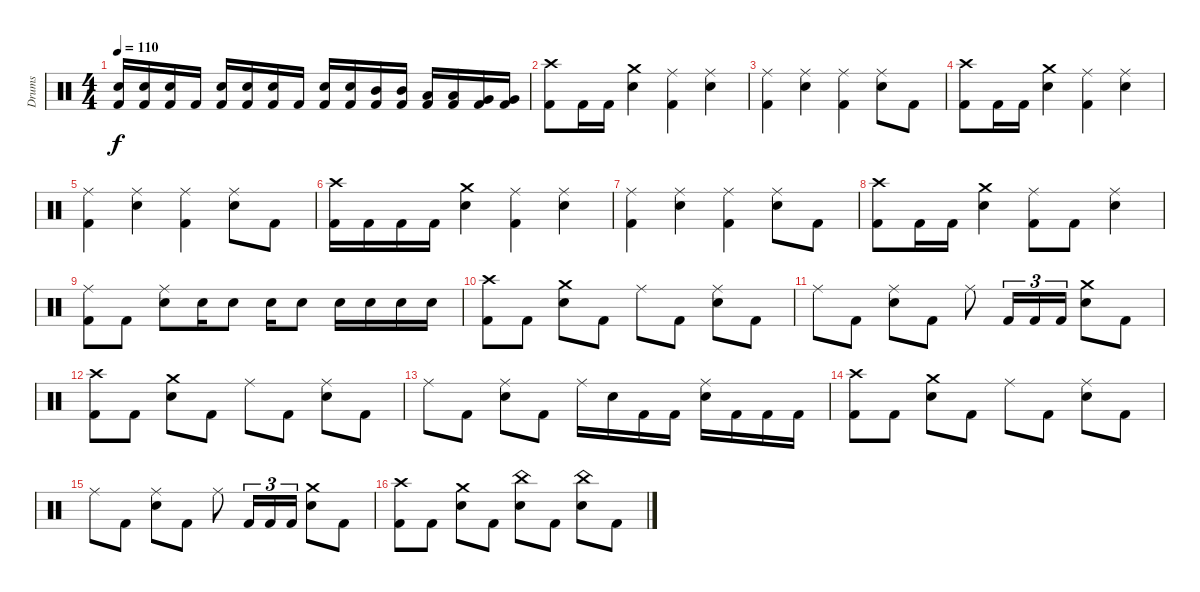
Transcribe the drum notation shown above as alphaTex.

\track ("Drums" "Drums") {instrument percussion}
\staff {score}
\articulation defaults
\ts (4 4)
\tempo 110
\clef neutral
\ks c
("Electric Snare (hit)" "Kick (hit) 2").16{dy f} ("Electric Snare (hit)" "Kick (hit) 2").16 ("Electric Snare (hit)" "Kick (hit) 2").16 "Kick (hit) 2".16 ("Electric Snare (hit)" "Kick (hit) 2").16 ("Electric Snare (hit)" "Kick (hit) 2").16 ("Electric Snare (hit)" "Kick (hit) 2").16 "Kick (hit) 2".16 ("Electric Snare (hit)" "Kick (hit) 2").16 ("Electric Snare (hit)" "Kick (hit) 2").16 ("Mid Tom (hit)" "Kick (hit) 2").16 ("Mid Tom (hit)" "Kick (hit) 2").16 ("Low Tom (hit)" "Kick (hit) 2").16 ("Low Tom (hit)" "Kick (hit) 2").16 ("Very Low Tom (hit)" "Kick (hit) 2").16 ("Very Low Tom (hit)" "Kick (hit) 2").16 |
("Crash high (hit)" "Kick (hit) 2").8 "Kick (hit) 2".16 "Kick (hit) 2".16 ("Crash medium (hit)" "Electric Snare (hit)").4 ("Ride (middle)" "Kick (hit) 2").4 ("Ride (middle)" "Electric Snare (hit)").4 |
("Ride (middle)" "Kick (hit) 2").4 ("Ride (middle)" "Electric Snare (hit)").4 ("Ride (middle)" "Kick (hit) 2").4 ("Ride (middle)" "Electric Snare (hit)").8 "Kick (hit) 2".8 |
("Crash high (hit)" "Kick (hit) 2").8 "Kick (hit) 2".16 "Kick (hit) 2".16 ("Crash medium (hit)" "Electric Snare (hit)").4 ("Ride (middle)" "Kick (hit) 2").4 ("Ride (middle)" "Electric Snare (hit)").4 |
("Ride (middle)" "Kick (hit) 2").4 ("Ride (middle)" "Electric Snare (hit)").4 ("Ride (middle)" "Kick (hit) 2").4 ("Ride (middle)" "Electric Snare (hit)").8 "Kick (hit) 2".8 |
("Crash high (hit)" "Kick (hit) 2").16 "Kick (hit) 2".16 "Kick (hit) 2".16 "Kick (hit) 2".16 ("Crash medium (hit)" "Electric Snare (hit)").4 ("Ride (middle)" "Kick (hit) 2").4 ("Ride (middle)" "Electric Snare (hit)").4 |
("Ride (middle)" "Kick (hit) 2").4 ("Ride (middle)" "Electric Snare (hit)").4 ("Ride (middle)" "Kick (hit) 2").4 ("Ride (middle)" "Electric Snare (hit)").8 "Kick (hit) 2".8 |
("Crash high (hit)" "Kick (hit) 2").8 "Kick (hit) 2".16 "Kick (hit) 2".16 ("Crash medium (hit)" "Electric Snare (hit)").4 ("Ride (middle)" "Kick (hit) 2").8 "Kick (hit) 2".8 ("Ride (middle)" "Electric Snare (hit)").4 |
("Ride (middle)" "Kick (hit) 2").8 "Kick (hit) 2".8 ("Ride (middle)" "Electric Snare (hit)").8 "Electric Snare (hit)".16 "Electric Snare (hit)".8 "Electric Snare (hit)".16 "Electric Snare (hit)".8 "Electric Snare (hit)".16 "Electric Snare (hit)".16 "Electric Snare (hit)".16 "Electric Snare (hit)".16 |
("Crash high (hit)" "Kick (hit) 2").8 "Kick (hit) 2".8 ("Crash medium (hit)" "Electric Snare (hit)").8 "Kick (hit) 2".8 "Ride (middle)".8 "Kick (hit) 2".8 ("Ride (middle)" "Electric Snare (hit)").8 "Kick (hit) 2".8 |
"Ride (middle)".8 "Kick (hit) 2".8 ("Ride (middle)" "Electric Snare (hit)").8 "Kick (hit) 2".8 "Ride (middle)".8 "Kick (hit) 2".16{tu (3 2)} "Kick (hit) 2".16{tu (3 2)} "Kick (hit) 2".16{tu (3 2)} ("Crash medium (hit)" "Electric Snare (hit)").8 "Kick (hit) 2".8 |
("Crash high (hit)" "Kick (hit) 2").8 "Kick (hit) 2".8 ("Crash medium (hit)" "Electric Snare (hit)").8 "Kick (hit) 2".8 "Ride (middle)".8 "Kick (hit) 2".8 ("Ride (middle)" "Electric Snare (hit)").8 "Kick (hit) 2".8 |
"Ride (middle)".8 "Kick (hit) 2".8 ("Ride (middle)" "Electric Snare (hit)").8 "Kick (hit) 2".8 "Ride (middle)".16 "Electric Snare (hit)".16 "Kick (hit) 2".16 "Kick (hit) 2".16 ("Ride (middle)" "Electric Snare (hit)").16 "Kick (hit) 2".16 "Kick (hit) 2".16 "Kick (hit) 2".16 |
("Crash high (hit)" "Kick (hit) 2").8 "Kick (hit) 2".8 ("Crash medium (hit)" "Electric Snare (hit)").8 "Kick (hit) 2".8 "Ride (middle)".8 "Kick (hit) 2".8 ("Ride (middle)" "Electric Snare (hit)").8 "Kick (hit) 2".8 |
"Ride (middle)".8 "Kick (hit) 2".8 ("Ride (middle)" "Electric Snare (hit)").8 "Kick (hit) 2".8 "Ride (middle)".8 "Kick (hit) 2".16{tu (3 2)} "Kick (hit) 2".16{tu (3 2)} "Kick (hit) 2".16{tu (3 2)} ("Crash medium (hit)" "Electric Snare (hit)").8 "Kick (hit) 2".8 |
("Crash high (hit)" "Kick (hit) 2").8 "Kick (hit) 2".8 ("Crash medium (hit)" "Electric Snare (hit)").8 "Kick (hit) 2".8 ("China (hit)" "Electric Snare (hit)").8 "Kick (hit) 2".8 ("China (hit)" "Electric Snare (hit)").8 "Kick (hit) 2".8
